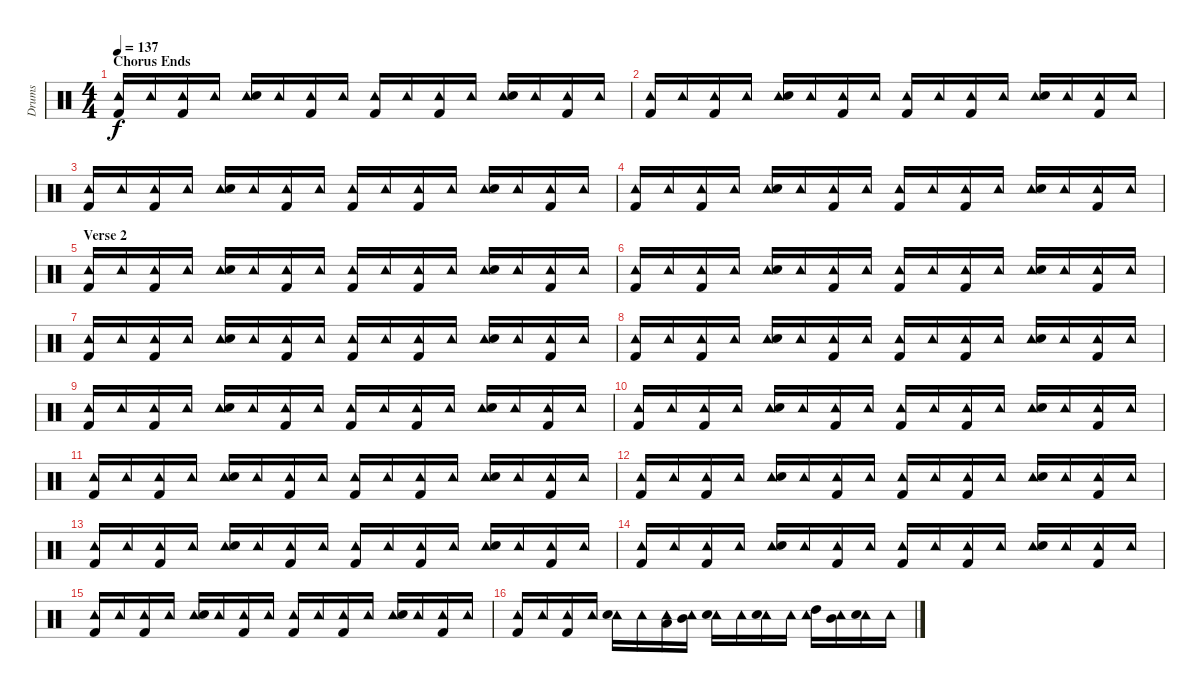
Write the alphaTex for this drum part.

\track ("Drums" "Drums") {instrument percussion}
\staff {score}
\articulation defaults
\ts (4 4)
\section ("" "Chorus Ends")
\tempo 137
\clef neutral
\ks c
("Tambourine (hit)" "Kick (hit) 2").16{dy f} "Tambourine (hit)".16 ("Tambourine (hit)" "Kick (hit) 2").16 "Tambourine (hit)".16 ("Tambourine (hit)" "Electric Snare (hit)").16 "Tambourine (hit)".16 ("Tambourine (hit)" "Kick (hit) 2").16 "Tambourine (hit)".16 ("Tambourine (hit)" "Kick (hit) 2").16 "Tambourine (hit)".16 ("Tambourine (hit)" "Kick (hit) 2").16 "Tambourine (hit)".16 ("Tambourine (hit)" "Electric Snare (hit)").16 "Tambourine (hit)".16 ("Tambourine (hit)" "Kick (hit) 2").16 "Tambourine (hit)".16 |
("Tambourine (hit)" "Kick (hit) 2").16 "Tambourine (hit)".16 ("Tambourine (hit)" "Kick (hit) 2").16 "Tambourine (hit)".16 ("Tambourine (hit)" "Electric Snare (hit)").16 "Tambourine (hit)".16 ("Tambourine (hit)" "Kick (hit) 2").16 "Tambourine (hit)".16 ("Tambourine (hit)" "Kick (hit) 2").16 "Tambourine (hit)".16 ("Tambourine (hit)" "Kick (hit) 2").16 "Tambourine (hit)".16 ("Tambourine (hit)" "Electric Snare (hit)").16 "Tambourine (hit)".16 ("Tambourine (hit)" "Kick (hit) 2").16 "Tambourine (hit)".16 |
("Tambourine (hit)" "Kick (hit) 2").16 "Tambourine (hit)".16 ("Tambourine (hit)" "Kick (hit) 2").16 "Tambourine (hit)".16 ("Tambourine (hit)" "Electric Snare (hit)").16 "Tambourine (hit)".16 ("Tambourine (hit)" "Kick (hit) 2").16 "Tambourine (hit)".16 ("Tambourine (hit)" "Kick (hit) 2").16 "Tambourine (hit)".16 ("Tambourine (hit)" "Kick (hit) 2").16 "Tambourine (hit)".16 ("Tambourine (hit)" "Electric Snare (hit)").16 "Tambourine (hit)".16 ("Tambourine (hit)" "Kick (hit) 2").16 "Tambourine (hit)".16 |
("Tambourine (hit)" "Kick (hit) 2").16 "Tambourine (hit)".16 ("Tambourine (hit)" "Kick (hit) 2").16 "Tambourine (hit)".16 ("Tambourine (hit)" "Electric Snare (hit)").16 "Tambourine (hit)".16 ("Tambourine (hit)" "Kick (hit) 2").16 "Tambourine (hit)".16 ("Tambourine (hit)" "Kick (hit) 2").16 "Tambourine (hit)".16 ("Tambourine (hit)" "Kick (hit) 2").16 "Tambourine (hit)".16 ("Tambourine (hit)" "Electric Snare (hit)").16 "Tambourine (hit)".16 ("Tambourine (hit)" "Kick (hit) 2").16 "Tambourine (hit)".16 |
\section ("" "Verse 2")
("Tambourine (hit)" "Kick (hit) 2").16 "Tambourine (hit)".16 ("Tambourine (hit)" "Kick (hit) 2").16 "Tambourine (hit)".16 ("Tambourine (hit)" "Electric Snare (hit)").16 "Tambourine (hit)".16 ("Tambourine (hit)" "Kick (hit) 2").16 "Tambourine (hit)".16 ("Tambourine (hit)" "Kick (hit) 2").16 "Tambourine (hit)".16 ("Tambourine (hit)" "Kick (hit) 2").16 "Tambourine (hit)".16 ("Tambourine (hit)" "Electric Snare (hit)").16 "Tambourine (hit)".16 ("Tambourine (hit)" "Kick (hit) 2").16 "Tambourine (hit)".16 |
("Tambourine (hit)" "Kick (hit) 2").16 "Tambourine (hit)".16 ("Tambourine (hit)" "Kick (hit) 2").16 "Tambourine (hit)".16 ("Tambourine (hit)" "Electric Snare (hit)").16 "Tambourine (hit)".16 ("Tambourine (hit)" "Kick (hit) 2").16 "Tambourine (hit)".16 ("Tambourine (hit)" "Kick (hit) 2").16 "Tambourine (hit)".16 ("Tambourine (hit)" "Kick (hit) 2").16 "Tambourine (hit)".16 ("Tambourine (hit)" "Electric Snare (hit)").16 "Tambourine (hit)".16 ("Tambourine (hit)" "Kick (hit) 2").16 "Tambourine (hit)".16 |
("Tambourine (hit)" "Kick (hit) 2").16 "Tambourine (hit)".16 ("Tambourine (hit)" "Kick (hit) 2").16 "Tambourine (hit)".16 ("Tambourine (hit)" "Electric Snare (hit)").16 "Tambourine (hit)".16 ("Tambourine (hit)" "Kick (hit) 2").16 "Tambourine (hit)".16 ("Tambourine (hit)" "Kick (hit) 2").16 "Tambourine (hit)".16 ("Tambourine (hit)" "Kick (hit) 2").16 "Tambourine (hit)".16 ("Tambourine (hit)" "Electric Snare (hit)").16 "Tambourine (hit)".16 ("Tambourine (hit)" "Kick (hit) 2").16 "Tambourine (hit)".16 |
("Tambourine (hit)" "Kick (hit) 2").16 "Tambourine (hit)".16 ("Tambourine (hit)" "Kick (hit) 2").16 "Tambourine (hit)".16 ("Tambourine (hit)" "Electric Snare (hit)").16 "Tambourine (hit)".16 ("Tambourine (hit)" "Kick (hit) 2").16 "Tambourine (hit)".16 ("Tambourine (hit)" "Kick (hit) 2").16 "Tambourine (hit)".16 ("Tambourine (hit)" "Kick (hit) 2").16 "Tambourine (hit)".16 ("Tambourine (hit)" "Electric Snare (hit)").16 "Tambourine (hit)".16 ("Tambourine (hit)" "Kick (hit) 2").16 "Tambourine (hit)".16 |
("Tambourine (hit)" "Kick (hit) 2").16 "Tambourine (hit)".16 ("Tambourine (hit)" "Kick (hit) 2").16 "Tambourine (hit)".16 ("Tambourine (hit)" "Electric Snare (hit)").16 "Tambourine (hit)".16 ("Tambourine (hit)" "Kick (hit) 2").16 "Tambourine (hit)".16 ("Tambourine (hit)" "Kick (hit) 2").16 "Tambourine (hit)".16 ("Tambourine (hit)" "Kick (hit) 2").16 "Tambourine (hit)".16 ("Tambourine (hit)" "Electric Snare (hit)").16 "Tambourine (hit)".16 ("Tambourine (hit)" "Kick (hit) 2").16 "Tambourine (hit)".16 |
("Tambourine (hit)" "Kick (hit) 2").16 "Tambourine (hit)".16 ("Tambourine (hit)" "Kick (hit) 2").16 "Tambourine (hit)".16 ("Tambourine (hit)" "Electric Snare (hit)").16 "Tambourine (hit)".16 ("Tambourine (hit)" "Kick (hit) 2").16 "Tambourine (hit)".16 ("Tambourine (hit)" "Kick (hit) 2").16 "Tambourine (hit)".16 ("Tambourine (hit)" "Kick (hit) 2").16 "Tambourine (hit)".16 ("Tambourine (hit)" "Electric Snare (hit)").16 "Tambourine (hit)".16 ("Tambourine (hit)" "Kick (hit) 2").16 "Tambourine (hit)".16 |
("Tambourine (hit)" "Kick (hit) 2").16 "Tambourine (hit)".16 ("Tambourine (hit)" "Kick (hit) 2").16 "Tambourine (hit)".16 ("Tambourine (hit)" "Electric Snare (hit)").16 "Tambourine (hit)".16 ("Tambourine (hit)" "Kick (hit) 2").16 "Tambourine (hit)".16 ("Tambourine (hit)" "Kick (hit) 2").16 "Tambourine (hit)".16 ("Tambourine (hit)" "Kick (hit) 2").16 "Tambourine (hit)".16 ("Tambourine (hit)" "Electric Snare (hit)").16 "Tambourine (hit)".16 ("Tambourine (hit)" "Kick (hit) 2").16 "Tambourine (hit)".16 |
("Tambourine (hit)" "Kick (hit) 2").16 "Tambourine (hit)".16 ("Tambourine (hit)" "Kick (hit) 2").16 "Tambourine (hit)".16 ("Tambourine (hit)" "Electric Snare (hit)").16 "Tambourine (hit)".16 ("Tambourine (hit)" "Kick (hit) 2").16 "Tambourine (hit)".16 ("Tambourine (hit)" "Kick (hit) 2").16 "Tambourine (hit)".16 ("Tambourine (hit)" "Kick (hit) 2").16 "Tambourine (hit)".16 ("Tambourine (hit)" "Electric Snare (hit)").16 "Tambourine (hit)".16 ("Tambourine (hit)" "Kick (hit) 2").16 "Tambourine (hit)".16 |
("Tambourine (hit)" "Kick (hit) 2").16 "Tambourine (hit)".16 ("Tambourine (hit)" "Kick (hit) 2").16 "Tambourine (hit)".16 ("Tambourine (hit)" "Electric Snare (hit)").16 "Tambourine (hit)".16 ("Tambourine (hit)" "Kick (hit) 2").16 "Tambourine (hit)".16 ("Tambourine (hit)" "Kick (hit) 2").16 "Tambourine (hit)".16 ("Tambourine (hit)" "Kick (hit) 2").16 "Tambourine (hit)".16 ("Tambourine (hit)" "Electric Snare (hit)").16 "Tambourine (hit)".16 ("Tambourine (hit)" "Kick (hit) 2").16 "Tambourine (hit)".16 |
("Tambourine (hit)" "Kick (hit) 2").16 "Tambourine (hit)".16 ("Tambourine (hit)" "Kick (hit) 2").16 "Tambourine (hit)".16 ("Tambourine (hit)" "Electric Snare (hit)").16 "Tambourine (hit)".16 ("Tambourine (hit)" "Kick (hit) 2").16 "Tambourine (hit)".16 ("Tambourine (hit)" "Kick (hit) 2").16 "Tambourine (hit)".16 ("Tambourine (hit)" "Kick (hit) 2").16 "Tambourine (hit)".16 ("Tambourine (hit)" "Electric Snare (hit)").16 "Tambourine (hit)".16 ("Tambourine (hit)" "Kick (hit) 2").16 "Tambourine (hit)".16 |
("Tambourine (hit)" "Kick (hit) 2").16 "Tambourine (hit)".16 ("Tambourine (hit)" "Kick (hit) 2").16 "Tambourine (hit)".16 ("Tambourine (hit)" "Electric Snare (hit)").16 "Tambourine (hit)".16 ("Tambourine (hit)" "Kick (hit) 2").16 "Tambourine (hit)".16 ("Tambourine (hit)" "Kick (hit) 2").16 "Tambourine (hit)".16 ("Tambourine (hit)" "Kick (hit) 2").16 "Tambourine (hit)".16 ("Tambourine (hit)" "Electric Snare (hit)").16 "Tambourine (hit)".16 ("Tambourine (hit)" "Kick (hit) 2").16 "Tambourine (hit)".16 |
("Tambourine (hit)" "Kick (hit) 2").16 "Tambourine (hit)".16 ("Tambourine (hit)" "Kick (hit) 2").16 "Tambourine (hit)".16 ("Tambourine (hit)" "Electric Snare (hit)").16 "Tambourine (hit)".16 ("Tambourine (hit)" "Low Tom (hit)").16 ("Tambourine (hit)" "Mid Tom (hit)").16 ("Tambourine (hit)" "Electric Snare (hit)").16 "Tambourine (hit)".16 ("Tambourine (hit)" "Electric Snare (hit)").16 "Tambourine (hit)".16 ("Tambourine (hit)" "High Tom (hit)").16 ("Tambourine (hit)" "Mid Tom (hit)").16 ("Tambourine (hit)" "Electric Snare (hit)").16 "Tambourine (hit)".16
